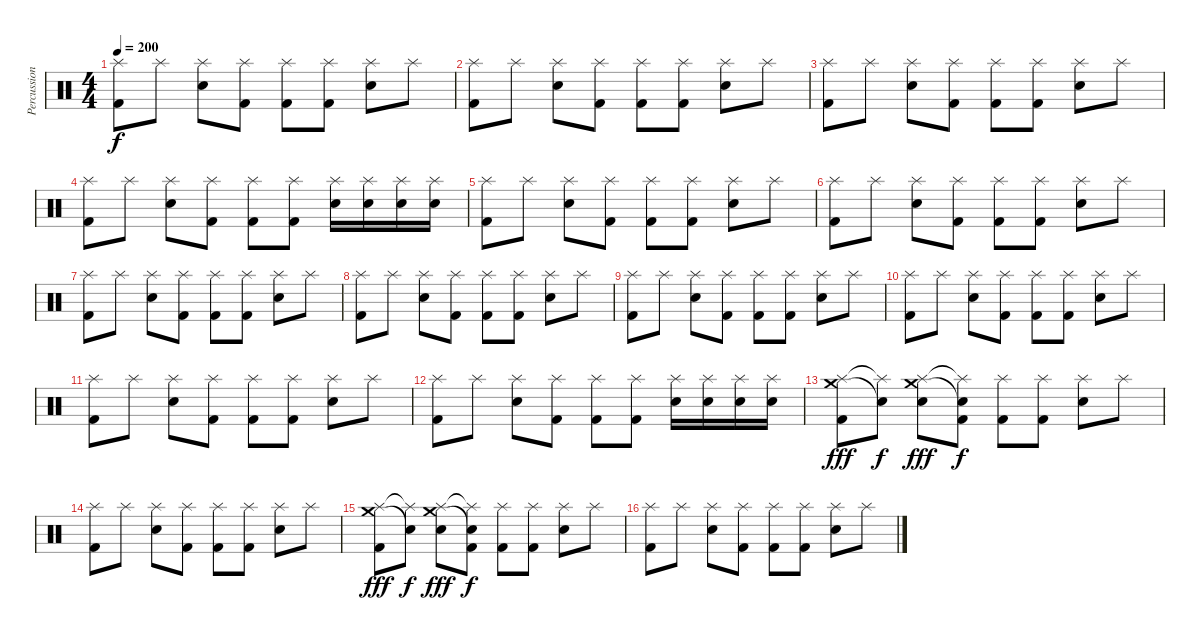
\track ("Percussions" "Percussion") {instrument percussion}
\staff {score}
\articulation defaults
\ts (4 4)
\tempo 200
\clef neutral
\ks c
("Splash (hit)" "Kick (hit) 2").8{dy f} "Splash (hit)".8 ("Splash (hit)" "Electric Snare (hit)").8 ("Splash (hit)" "Kick (hit) 2").8 ("Splash (hit)" "Kick (hit) 2").8 ("Splash (hit)" "Kick (hit) 2").8 ("Splash (hit)" "Electric Snare (hit)").8 "Splash (hit)".8 |
("Splash (hit)" "Kick (hit) 2").8 "Splash (hit)".8 ("Splash (hit)" "Electric Snare (hit)").8 ("Splash (hit)" "Kick (hit) 2").8 ("Splash (hit)" "Kick (hit) 2").8 ("Splash (hit)" "Kick (hit) 2").8 ("Splash (hit)" "Electric Snare (hit)").8 "Splash (hit)".8 |
("Splash (hit)" "Kick (hit) 2").8 "Splash (hit)".8 ("Splash (hit)" "Electric Snare (hit)").8 ("Splash (hit)" "Kick (hit) 2").8 ("Splash (hit)" "Kick (hit) 2").8 ("Splash (hit)" "Kick (hit) 2").8 ("Splash (hit)" "Electric Snare (hit)").8 "Splash (hit)".8 |
("Splash (hit)" "Kick (hit) 2").8 "Splash (hit)".8 ("Splash (hit)" "Electric Snare (hit)").8 ("Splash (hit)" "Kick (hit) 2").8 ("Splash (hit)" "Kick (hit) 2").8 ("Splash (hit)" "Kick (hit) 2").8 ("Splash (hit)" "Electric Snare (hit)").16 ("Splash (hit)" "Electric Snare (hit)").16 ("Splash (hit)" "Electric Snare (hit)").16 ("Splash (hit)" "Electric Snare (hit)").16 |
("Splash (hit)" "Kick (hit) 2").8 "Splash (hit)".8 ("Splash (hit)" "Electric Snare (hit)").8 ("Splash (hit)" "Kick (hit) 2").8 ("Splash (hit)" "Kick (hit) 2").8 ("Splash (hit)" "Kick (hit) 2").8 ("Splash (hit)" "Electric Snare (hit)").8 "Splash (hit)".8 |
("Splash (hit)" "Kick (hit) 2").8 "Splash (hit)".8 ("Splash (hit)" "Electric Snare (hit)").8 ("Splash (hit)" "Kick (hit) 2").8 ("Splash (hit)" "Kick (hit) 2").8 ("Splash (hit)" "Kick (hit) 2").8 ("Splash (hit)" "Electric Snare (hit)").8 "Splash (hit)".8 |
("Splash (hit)" "Kick (hit) 2").8 "Splash (hit)".8 ("Splash (hit)" "Electric Snare (hit)").8 ("Splash (hit)" "Kick (hit) 2").8 ("Splash (hit)" "Kick (hit) 2").8 ("Splash (hit)" "Kick (hit) 2").8 ("Splash (hit)" "Electric Snare (hit)").8 "Splash (hit)".8 |
("Splash (hit)" "Kick (hit) 2").8 "Splash (hit)".8 ("Splash (hit)" "Electric Snare (hit)").8 ("Splash (hit)" "Kick (hit) 2").8 ("Splash (hit)" "Kick (hit) 2").8 ("Splash (hit)" "Kick (hit) 2").8 ("Splash (hit)" "Electric Snare (hit)").8 "Splash (hit)".8 |
("Splash (hit)" "Kick (hit) 2").8 "Splash (hit)".8 ("Splash (hit)" "Electric Snare (hit)").8 ("Splash (hit)" "Kick (hit) 2").8 ("Splash (hit)" "Kick (hit) 2").8 ("Splash (hit)" "Kick (hit) 2").8 ("Splash (hit)" "Electric Snare (hit)").8 "Splash (hit)".8 |
("Splash (hit)" "Kick (hit) 2").8 "Splash (hit)".8 ("Splash (hit)" "Electric Snare (hit)").8 ("Splash (hit)" "Kick (hit) 2").8 ("Splash (hit)" "Kick (hit) 2").8 ("Splash (hit)" "Kick (hit) 2").8 ("Splash (hit)" "Electric Snare (hit)").8 "Splash (hit)".8 |
("Splash (hit)" "Kick (hit) 2").8 "Splash (hit)".8 ("Splash (hit)" "Electric Snare (hit)").8 ("Splash (hit)" "Kick (hit) 2").8 ("Splash (hit)" "Kick (hit) 2").8 ("Splash (hit)" "Kick (hit) 2").8 ("Splash (hit)" "Electric Snare (hit)").8 "Splash (hit)".8 |
("Splash (hit)" "Kick (hit) 2").8 "Splash (hit)".8 ("Splash (hit)" "Electric Snare (hit)").8 ("Splash (hit)" "Kick (hit) 2").8 ("Splash (hit)" "Kick (hit) 2").8 ("Splash (hit)" "Kick (hit) 2").8 ("Splash (hit)" "Electric Snare (hit)").16 ("Splash (hit)" "Electric Snare (hit)").16 ("Splash (hit)" "Electric Snare (hit)").16 ("Splash (hit)" "Electric Snare (hit)").16 |
("Splash (hit)" "Crash medium (hit)" "Kick (hit) 2").8{dy fff} ("Splash (hit)"{t} "Snare (hit)"{t}).8{dy f} ("Splash (hit)" "Crash medium (hit)" "Electric Snare (hit)").8{dy fff} ("Splash (hit)"{t} "Snare (hit)"{t} "Kick (hit) 2").8{dy f} ("Splash (hit)" "Kick (hit) 2").8 ("Splash (hit)" "Kick (hit) 2").8 ("Splash (hit)" "Electric Snare (hit)").8 "Splash (hit)".8 |
("Splash (hit)" "Kick (hit) 2").8 "Splash (hit)".8 ("Splash (hit)" "Electric Snare (hit)").8 ("Splash (hit)" "Kick (hit) 2").8 ("Splash (hit)" "Kick (hit) 2").8 ("Splash (hit)" "Kick (hit) 2").8 ("Splash (hit)" "Electric Snare (hit)").8 "Splash (hit)".8 |
("Splash (hit)" "Crash medium (hit)" "Kick (hit) 2").8{dy fff} ("Splash (hit)"{t} "Snare (hit)"{t}).8{dy f} ("Splash (hit)" "Crash medium (hit)" "Electric Snare (hit)").8{dy fff} ("Splash (hit)"{t} "Snare (hit)"{t} "Kick (hit) 2").8{dy f} ("Splash (hit)" "Kick (hit) 2").8 ("Splash (hit)" "Kick (hit) 2").8 ("Splash (hit)" "Electric Snare (hit)").8 "Splash (hit)".8 |
("Splash (hit)" "Kick (hit) 2").8 "Splash (hit)".8 ("Splash (hit)" "Electric Snare (hit)").8 ("Splash (hit)" "Kick (hit) 2").8 ("Splash (hit)" "Kick (hit) 2").8 ("Splash (hit)" "Kick (hit) 2").8 ("Splash (hit)" "Electric Snare (hit)").8 "Splash (hit)".8
